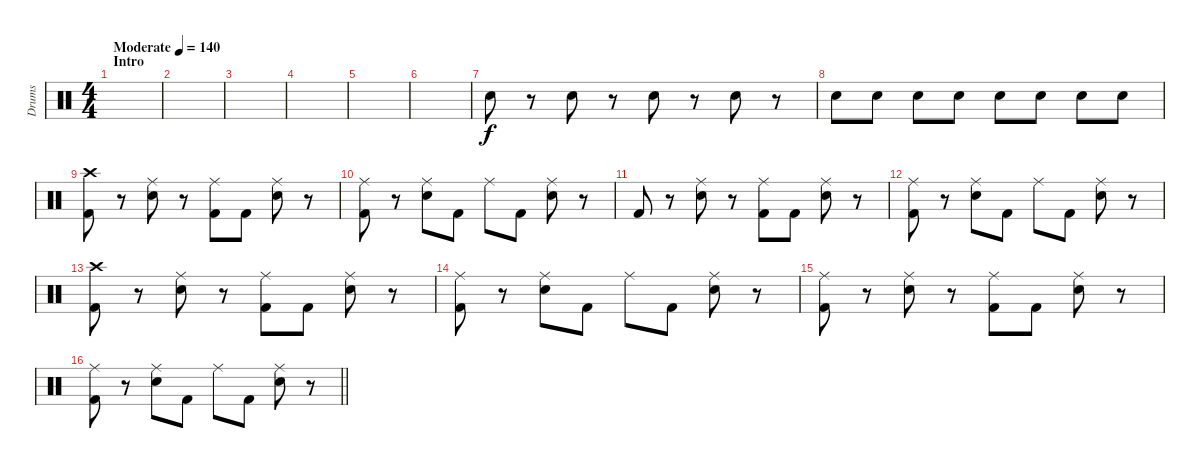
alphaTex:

\track ("Drums" "Drums") {instrument percussion}
\staff {score}
\articulation defaults
\ts (4 4)
\section ("" "Intro")
\tempo (140 "Moderate")
\clef neutral
\ks c
|
|
|
|
|
|
"Snare (hit) 2".8 r.8 "Snare (hit) 2".8 r.8 "Snare (hit) 2".8 r.8 "Snare (hit) 2".8 r.8 |
"Snare (hit) 2".8 "Snare (hit) 2".8 "Snare (hit) 2".8 "Snare (hit) 2".8 "Snare (hit) 2".8 "Snare (hit) 2".8 "Snare (hit) 2".8 "Snare (hit) 2".8 |
("Crash high (hit)" "Kick (hit) 2").8 r.8 ("Ride (middle)" "Snare (hit) 2").8 r.8 ("Ride (middle)" "Kick (hit) 2").8 "Kick (hit) 2".8 ("Ride (middle)" "Snare (hit) 2").8 r.8 |
("Ride (middle)" "Kick (hit) 2").8 r.8 ("Ride (middle)" "Snare (hit) 2").8 "Kick (hit) 2".8 "Ride (middle)".8 "Kick (hit) 2".8 ("Ride (middle)" "Snare (hit) 2").8 r.8 |
"Kick (hit) 2".8 r.8 ("Ride (middle)" "Snare (hit) 2").8 r.8 ("Ride (middle)" "Kick (hit) 2").8 "Kick (hit) 2".8 ("Ride (middle)" "Snare (hit) 2").8 r.8 |
("Ride (middle)" "Kick (hit) 2").8 r.8 ("Ride (middle)" "Snare (hit) 2").8 "Kick (hit) 2".8 "Ride (middle)".8 "Kick (hit) 2".8 ("Ride (middle)" "Snare (hit) 2").8 r.8 |
("Crash high (hit)" "Kick (hit) 2").8 r.8 ("Ride (middle)" "Snare (hit) 2").8 r.8 ("Ride (middle)" "Kick (hit) 2").8 "Kick (hit) 2".8 ("Ride (middle)" "Snare (hit) 2").8 r.8 |
("Ride (middle)" "Kick (hit) 2").8 r.8 ("Ride (middle)" "Snare (hit) 2").8 "Kick (hit) 2".8 "Ride (middle)".8 "Kick (hit) 2".8 ("Ride (middle)" "Snare (hit) 2").8 r.8 |
("Ride (middle)" "Kick (hit) 2").8 r.8 ("Ride (middle)" "Snare (hit) 2").8 r.8 ("Ride (middle)" "Kick (hit) 2").8 "Kick (hit) 2".8 ("Ride (middle)" "Snare (hit) 2").8 r.8 |
\barLineRight lightlight
("Ride (middle)" "Kick (hit) 2").8 r.8 ("Ride (middle)" "Snare (hit) 2").8 "Kick (hit) 2".8 "Ride (middle)".8 "Kick (hit) 2".8 ("Ride (middle)" "Snare (hit) 2").8 r.8
